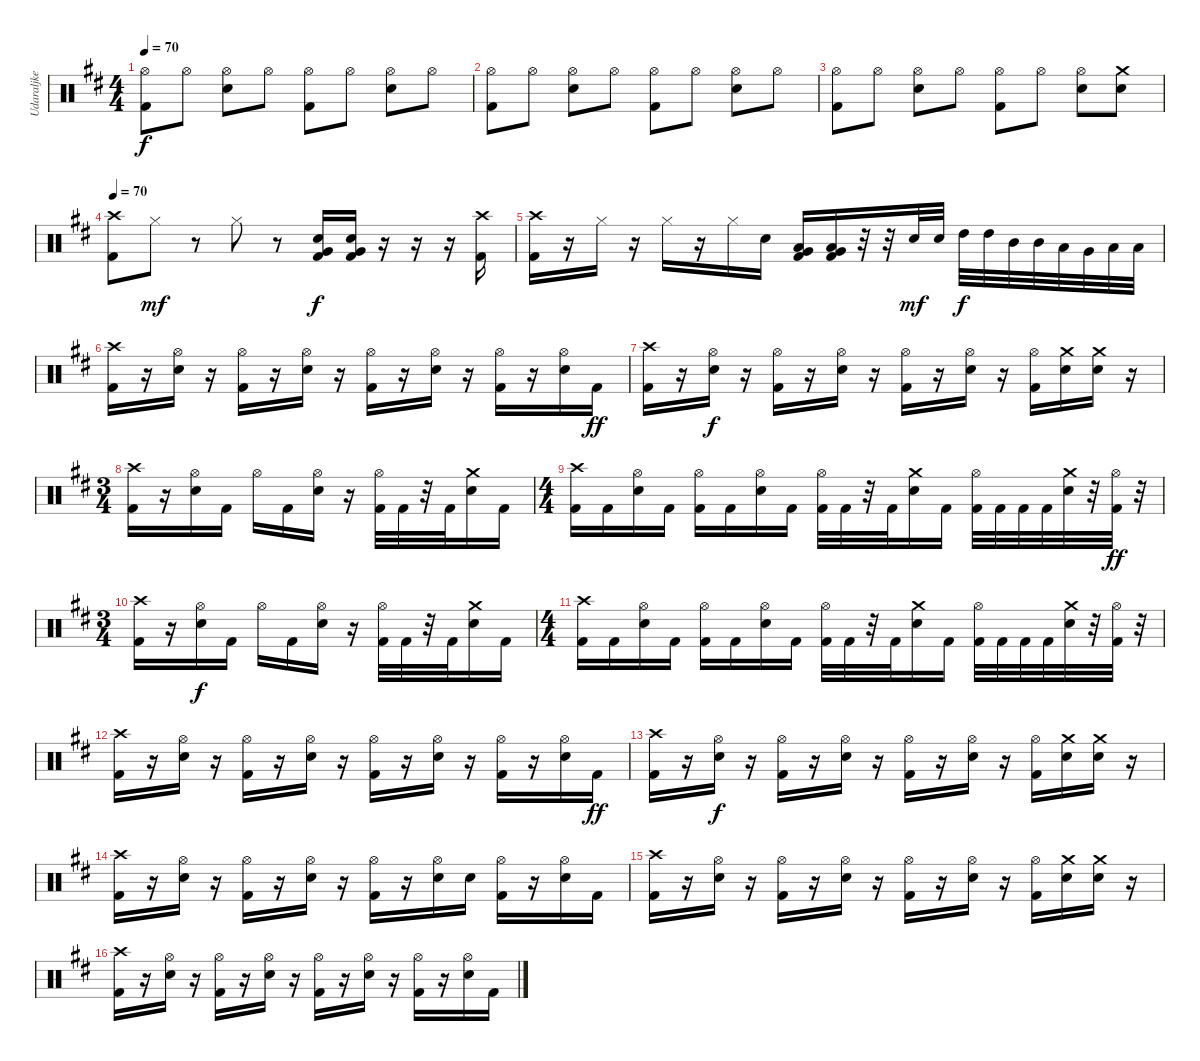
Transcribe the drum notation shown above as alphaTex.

\track ("Udaraljke" "Udaraljke") {instrument percussion}
\staff {score}
\articulation defaults
\ts (4 4)
\tempo 70
\clef neutral
\ks bminor
("Hi-Hat (open)" "Kick (hit) 2").8{dy f} "Hi-Hat (open)".8 ("Hi-Hat (open)" "Snare (hit) 2").8 "Hi-Hat (open)".8 ("Hi-Hat (open)" "Kick (hit) 2").8 "Hi-Hat (open)".8 ("Hi-Hat (open)" "Snare (hit) 2").8 "Hi-Hat (open)".8 |
("Hi-Hat (open)" "Kick (hit) 2").8 "Hi-Hat (open)".8 ("Hi-Hat (open)" "Snare (hit) 2").8 "Hi-Hat (open)".8 ("Hi-Hat (open)" "Kick (hit) 2").8 "Hi-Hat (open)".8 ("Hi-Hat (open)" "Snare (hit) 2").8 "Hi-Hat (open)".8 |
("Hi-Hat (open)" "Kick (hit) 2").8 "Hi-Hat (open)".8 ("Hi-Hat (open)" "Snare (hit) 2").8 "Hi-Hat (open)".8 ("Hi-Hat (open)" "Kick (hit) 2").8 "Hi-Hat (open)".8 ("Hi-Hat (open)" "Snare (hit) 2").8 ("Crash medium (hit)" "Snare (hit) 2").8 |
\tempo 70
("Crash high (hit)" "Kick (hit) 2").8 "Hi-Hat (closed)".8{dy mf} r.8 "Hi-Hat (closed)".8 r.8 ("Very Low Tom (hit)" "Snare (hit) 2" "Kick (hit) 2").16{dy f} ("Very Low Tom (hit)" "Snare (hit) 2" "Kick (hit) 2").16 r.16 r.16 r.16 ("Crash high (hit)" "Kick (hit) 2").16 |
("Crash high (hit)" "Kick (hit) 2").16 r.16 "Hi-Hat (closed)".16 r.16 "Hi-Hat (closed)".16 r.16 "Hi-Hat (closed)".16 "Snare (hit) 2".16 ("Low Tom (hit)" "Very Low Tom (hit)" "Kick (hit) 2").16 ("Very Low Tom (hit)" "Low Floor Tom (hit)" "Kick (hit) 2").16 r.32 r.32 "Snare (hit) 2".32{dy mf} "Snare (hit) 2".32 "High Tom (hit)".32{dy f} "High Tom (hit)".32 "Mid Tom (hit)".32 "Mid Tom (hit)".32 "Low Tom (hit)".32 "Very Low Tom (hit)".32 "Low Floor Tom (hit)".32 "Low Floor Tom (hit)".32 |
("Crash high (hit)" "Kick (hit) 2").16 r.16 ("Hi-Hat (open)" "Snare (hit) 2").16 r.16 ("Hi-Hat (open)" "Kick (hit) 2").16 r.16 ("Hi-Hat (open)" "Snare (hit) 2").16 r.16 ("Hi-Hat (open)" "Kick (hit) 2").16 r.16 ("Hi-Hat (open)" "Snare (hit) 2").16 r.16 ("Hi-Hat (open)" "Kick (hit) 2").16 r.16 ("Hi-Hat (open)" "Snare (hit) 2").16 "Kick (hit) 2".16{dy ff} |
("Crash high (hit)" "Kick (hit) 2").16 r.16 ("Hi-Hat (open)" "Snare (hit) 2").16{dy f} r.16 ("Hi-Hat (open)" "Kick (hit) 2").16 r.16 ("Hi-Hat (open)" "Snare (hit) 2").16 r.16 ("Hi-Hat (open)" "Kick (hit) 2").16 r.16 ("Hi-Hat (open)" "Snare (hit) 2").16 r.16 ("Hi-Hat (open)" "Kick (hit) 2").16 ("Crash medium (hit)" "Snare (hit) 2").16 ("Crash medium (hit)" "Snare (hit) 2").16 r.16 |
\ts (3 4)
("Crash high (hit)" "Kick (hit) 2").16 r.16 ("Hi-Hat (open)" "Snare (hit) 2").16 "Kick (hit) 2".16 "Hi-Hat (open)".16 "Kick (hit) 2".16 ("Hi-Hat (open)" "Snare (hit) 2").16 r.16 ("Hi-Hat (open)" "Kick (hit) 2").32 "Kick (hit) 2".32 r.32 "Kick (hit) 2".32 ("Crash medium (hit)" "Snare (hit) 2").16 "Kick (hit) 2".16 |
\ts (4 4)
("Crash high (hit)" "Kick (hit) 2").16 "Kick (hit) 2".16 ("Hi-Hat (open)" "Snare (hit) 2").16 "Kick (hit) 2".16 ("Hi-Hat (open)" "Kick (hit) 2").16 "Kick (hit) 2".16 ("Hi-Hat (open)" "Snare (hit) 2").16 "Kick (hit) 2".16 ("Hi-Hat (open)" "Kick (hit) 2").32 "Kick (hit) 2".32 r.32 "Kick (hit) 2".32 ("Crash medium (hit)" "Snare (hit) 2").16 "Kick (hit) 2".16 ("Hi-Hat (open)" "Kick (hit) 2").32 "Kick (hit) 2".32 "Kick (hit) 2".32 "Kick (hit) 2".32 ("Crash medium (hit)" "Snare (hit) 2").32 r.32 ("Hi-Hat (open)" "Kick (hit) 2").32{dy ff} r.32 |
\ts (3 4)
("Crash high (hit)" "Kick (hit) 2").16 r.16 ("Hi-Hat (open)" "Snare (hit) 2").16{dy f} "Kick (hit) 2".16 "Hi-Hat (open)".16 "Kick (hit) 2".16 ("Hi-Hat (open)" "Snare (hit) 2").16 r.16 ("Hi-Hat (open)" "Kick (hit) 2").32 "Kick (hit) 2".32 r.32 "Kick (hit) 2".32 ("Crash medium (hit)" "Snare (hit) 2").16 "Kick (hit) 2".16 |
\ts (4 4)
("Crash high (hit)" "Kick (hit) 2").16 "Kick (hit) 2".16 ("Hi-Hat (open)" "Snare (hit) 2").16 "Kick (hit) 2".16 ("Hi-Hat (open)" "Kick (hit) 2").16 "Kick (hit) 2".16 ("Hi-Hat (open)" "Snare (hit) 2").16 "Kick (hit) 2".16 ("Hi-Hat (open)" "Kick (hit) 2").32 "Kick (hit) 2".32 r.32 "Kick (hit) 2".32 ("Crash medium (hit)" "Snare (hit) 2").16 "Kick (hit) 2".16 ("Hi-Hat (open)" "Kick (hit) 2").32 "Kick (hit) 2".32 "Kick (hit) 2".32 "Kick (hit) 2".32 ("Crash medium (hit)" "Snare (hit) 2").32 r.32 ("Hi-Hat (open)" "Kick (hit) 2").32 r.32 |
("Crash high (hit)" "Kick (hit) 2").16 r.16 ("Hi-Hat (open)" "Snare (hit) 2").16 r.16 ("Hi-Hat (open)" "Kick (hit) 2").16 r.16 ("Hi-Hat (open)" "Snare (hit) 2").16 r.16 ("Hi-Hat (open)" "Kick (hit) 2").16 r.16 ("Hi-Hat (open)" "Snare (hit) 2").16 r.16 ("Hi-Hat (open)" "Kick (hit) 2").16 r.16 ("Hi-Hat (open)" "Snare (hit) 2").16 "Kick (hit) 2".16{dy ff} |
("Crash high (hit)" "Kick (hit) 2").16 r.16 ("Hi-Hat (open)" "Snare (hit) 2").16{dy f} r.16 ("Hi-Hat (open)" "Kick (hit) 2").16 r.16 ("Hi-Hat (open)" "Snare (hit) 2").16 r.16 ("Hi-Hat (open)" "Kick (hit) 2").16 r.16 ("Hi-Hat (open)" "Snare (hit) 2").16 r.16 ("Hi-Hat (open)" "Kick (hit) 2").16 ("Crash medium (hit)" "Snare (hit) 2").16 ("Crash medium (hit)" "Snare (hit) 2").16 r.16 |
("Crash high (hit)" "Kick (hit) 2").16 r.16 ("Hi-Hat (open)" "Snare (hit) 2").16 r.16 ("Hi-Hat (open)" "Kick (hit) 2").16 r.16 ("Hi-Hat (open)" "Snare (hit) 2").16 r.16 ("Hi-Hat (open)" "Kick (hit) 2").16 r.16 ("Hi-Hat (open)" "Snare (hit) 2").16 "Snare (hit) 2".16 ("Hi-Hat (open)" "Kick (hit) 2").16 r.16 ("Hi-Hat (open)" "Snare (hit) 2").16 "Kick (hit) 2".16 |
("Crash high (hit)" "Kick (hit) 2").16 r.16 ("Hi-Hat (open)" "Snare (hit) 2").16 r.16 ("Hi-Hat (open)" "Kick (hit) 2").16 r.16 ("Hi-Hat (open)" "Snare (hit) 2").16 r.16 ("Hi-Hat (open)" "Kick (hit) 2").16 r.16 ("Hi-Hat (open)" "Snare (hit) 2").16 r.16 ("Hi-Hat (open)" "Kick (hit) 2").16 ("Crash medium (hit)" "Snare (hit) 2").16 ("Crash medium (hit)" "Snare (hit) 2").16 r.16 |
("Crash high (hit)" "Kick (hit) 2").16 r.16 ("Hi-Hat (open)" "Snare (hit) 2").16 r.16 ("Hi-Hat (open)" "Kick (hit) 2").16 r.16 ("Hi-Hat (open)" "Snare (hit) 2").16 r.16 ("Hi-Hat (open)" "Kick (hit) 2").16 r.16 ("Hi-Hat (open)" "Snare (hit) 2").16 r.16 ("Hi-Hat (open)" "Kick (hit) 2").16 r.16 ("Hi-Hat (open)" "Snare (hit) 2").16 "Kick (hit) 2".16
